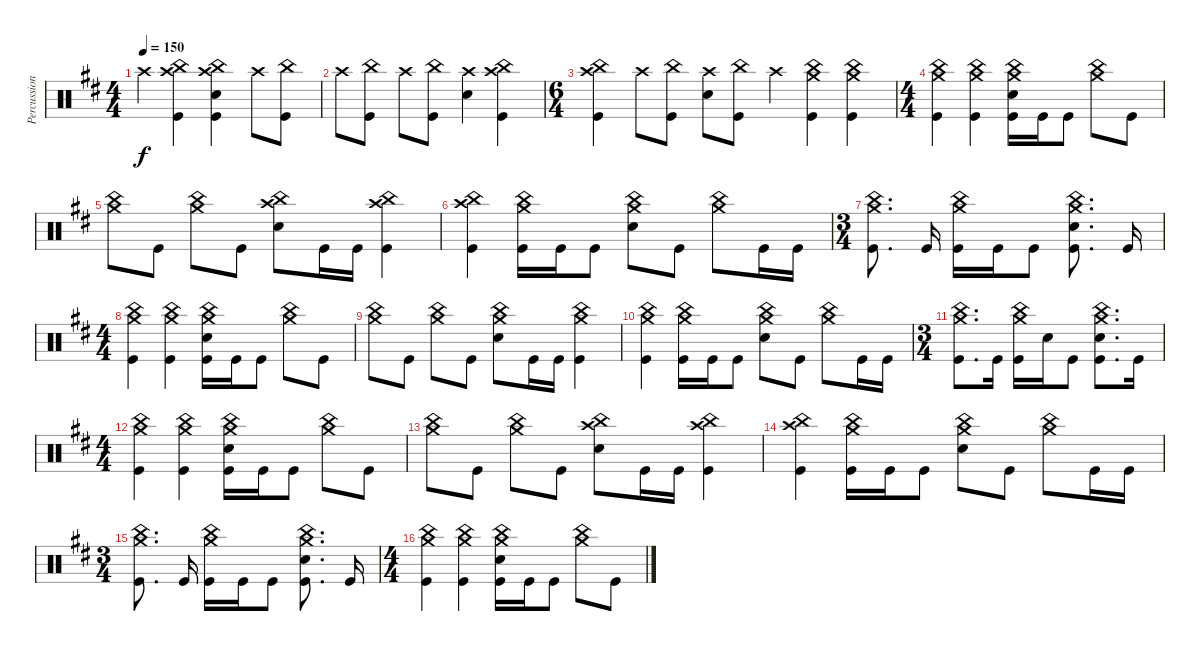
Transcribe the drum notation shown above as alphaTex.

\track ("Percussion" "Percussion") {instrument percussion}
\staff {score}
\articulation defaults
\ts (4 4)
\tempo 150
\clef neutral
\ks bminor "Crash high (hit)".4{dy f}
("Crash high (hit)" "China (hit)" "Kick (hit)").4 ("Crash high (hit)" "China (hit)" "Electric Snare (hit)" "Kick (hit)").4 "Crash high (hit)".8 ("China (hit)" "Kick (hit)").8 |
"Crash high (hit)".8 ("China (hit)" "Kick (hit)").8 "Crash high (hit)".8 ("China (hit)" "Kick (hit)").8 ("Crash high (hit)" "Electric Snare (hit)").4 ("Crash high (hit)" "China (hit)" "Kick (hit)").4 |
\ts (6 4)
("Crash high (hit)" "China (hit)" "Kick (hit)").4 "Crash high (hit)".8 ("China (hit)" "Kick (hit)").8 ("Crash high (hit)" "Electric Snare (hit)").8 ("China (hit)" "Kick (hit)").8 "Crash high (hit)".4 ("Crash medium (hit)" "China (hit)" "Kick (hit)").4 ("Crash medium (hit)" "China (hit)" "Kick (hit)").4 |
\ts (4 4)
("Crash medium (hit)" "China (hit)" "Kick (hit)").4 ("Crash medium (hit)" "China (hit)" "Kick (hit)").4 ("Crash medium (hit)" "China (hit)" "Electric Snare (hit)" "Kick (hit)").16 "Kick (hit)".16 "Kick (hit)".8 ("Crash medium (hit)" "China (hit)").8 "Kick (hit)".8 |
("Crash medium (hit)" "China (hit)").8 "Kick (hit)".8 ("Crash medium (hit)" "China (hit)").8 "Kick (hit)".8 ("Crash high (hit)" "China (hit)" "Electric Snare (hit)").8 "Kick (hit)".16 "Kick (hit)".16 ("Crash high (hit)" "China (hit)" "Kick (hit)").4 |
("Crash high (hit)" "China (hit)" "Kick (hit)").4 ("Crash medium (hit)" "China (hit)" "Kick (hit)").16 "Kick (hit)".16 "Kick (hit)".8 ("Crash medium (hit)" "China (hit)" "Electric Snare (hit)").8 "Kick (hit)".8 ("Crash medium (hit)" "China (hit)").8 "Kick (hit)".16 "Kick (hit)".16 |
\ts (3 4)
("Crash medium (hit)" "China (hit)" "Kick (hit)").8{d beam split} "Kick (hit)".16 ("Crash medium (hit)" "China (hit)" "Kick (hit)").16 "Kick (hit)".16 "Kick (hit)".8 ("Crash medium (hit)" "China (hit)" "Electric Snare (hit)" "Kick (hit)").8{d beam split} "Kick (hit)".16 |
\ts (4 4)
("Crash medium (hit)" "China (hit)" "Kick (hit)").4 ("Crash medium (hit)" "China (hit)" "Kick (hit)").4 ("Crash medium (hit)" "China (hit)" "Electric Snare (hit)" "Kick (hit)").16 "Kick (hit)".16 "Kick (hit)".8 ("Crash medium (hit)" "China (hit)").8 "Kick (hit)".8 |
("Crash medium (hit)" "China (hit)").8 "Kick (hit)".8 ("Crash medium (hit)" "China (hit)").8 "Kick (hit)".8 ("Crash medium (hit)" "China (hit)" "Electric Snare (hit)").8 "Kick (hit)".16 "Kick (hit)".16 ("Crash medium (hit)" "China (hit)" "Kick (hit)").4 |
("Crash medium (hit)" "China (hit)" "Kick (hit)").4 ("Crash medium (hit)" "China (hit)" "Kick (hit)").16 "Kick (hit)".16 "Kick (hit)".8 ("Crash medium (hit)" "China (hit)" "Electric Snare (hit)").8 "Kick (hit)".8 ("Crash medium (hit)" "China (hit)").8 "Kick (hit)".16 "Kick (hit)".16 |
\ts (3 4)
("Crash medium (hit)" "China (hit)" "Kick (hit)").8{d} "Kick (hit)".16 ("Crash medium (hit)" "China (hit)" "Kick (hit)").16 "Electric Snare (hit)".16 "Kick (hit)".8 ("Crash medium (hit)" "China (hit)" "Electric Snare (hit)" "Kick (hit)").8{d} "Kick (hit)".16 |
\ts (4 4)
("Crash medium (hit)" "China (hit)" "Kick (hit)").4 ("Crash medium (hit)" "China (hit)" "Kick (hit)").4 ("Crash medium (hit)" "China (hit)" "Electric Snare (hit)" "Kick (hit)").16 "Kick (hit)".16 "Kick (hit)".8 ("Crash medium (hit)" "China (hit)").8 "Kick (hit)".8 |
("Crash medium (hit)" "China (hit)").8 "Kick (hit)".8 ("Crash medium (hit)" "China (hit)").8 "Kick (hit)".8 ("Crash high (hit)" "China (hit)" "Electric Snare (hit)").8 "Kick (hit)".16 "Kick (hit)".16 ("Crash high (hit)" "China (hit)" "Kick (hit)").4 |
("Crash high (hit)" "China (hit)" "Kick (hit)").4 ("Crash medium (hit)" "China (hit)" "Kick (hit)").16 "Kick (hit)".16 "Kick (hit)".8 ("Crash medium (hit)" "China (hit)" "Electric Snare (hit)").8 "Kick (hit)".8 ("Crash medium (hit)" "China (hit)").8 "Kick (hit)".16 "Kick (hit)".16 |
\ts (3 4)
("Crash medium (hit)" "China (hit)" "Kick (hit)").8{d beam split} "Kick (hit)".16 ("Crash medium (hit)" "China (hit)" "Kick (hit)").16 "Kick (hit)".16 "Kick (hit)".8 ("Crash medium (hit)" "China (hit)" "Electric Snare (hit)" "Kick (hit)").8{d beam split} "Kick (hit)".16 |
\ts (4 4)
("Crash medium (hit)" "China (hit)" "Kick (hit)").4 ("Crash medium (hit)" "China (hit)" "Kick (hit)").4 ("Crash medium (hit)" "China (hit)" "Electric Snare (hit)" "Kick (hit)").16 "Kick (hit)".16 "Kick (hit)".8 ("Crash medium (hit)" "China (hit)").8 "Kick (hit)".8
